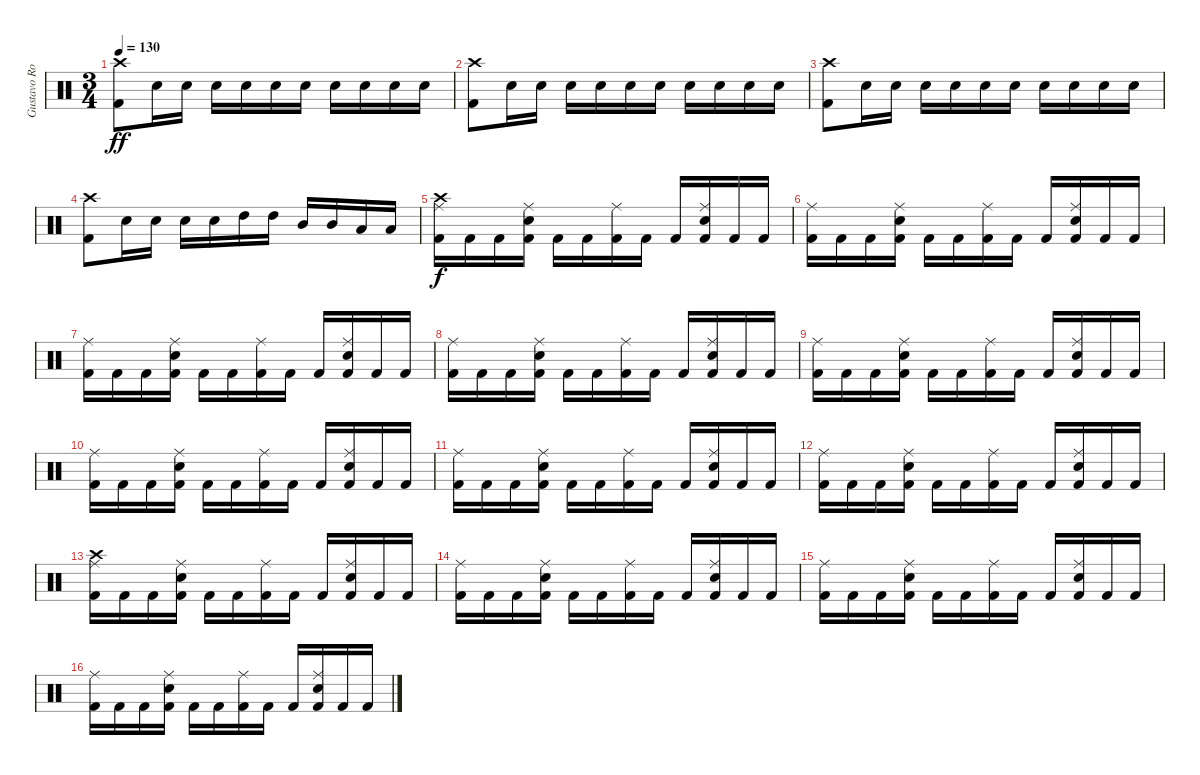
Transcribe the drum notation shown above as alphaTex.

\track ("Gustavo Rowek" "Gustavo Ro") {instrument percussion}
\staff {score}
\articulation defaults
\ts (3 4)
\tempo 130
\clef neutral
\ks c
("Kick (hit) 2" "Crash high (hit)").8{dy ff} "Electric Snare (hit)".16 "Electric Snare (hit)".16 "Electric Snare (hit)".16 "Electric Snare (hit)".16 "Electric Snare (hit)".16 "Electric Snare (hit)".16 "Electric Snare (hit)".16 "Electric Snare (hit)".16 "Electric Snare (hit)".16 "Electric Snare (hit)".16 |
("Kick (hit) 2" "Crash high (hit)").8 "Electric Snare (hit)".16 "Electric Snare (hit)".16 "Electric Snare (hit)".16 "Electric Snare (hit)".16 "Electric Snare (hit)".16 "Electric Snare (hit)".16 "Electric Snare (hit)".16 "Electric Snare (hit)".16 "Electric Snare (hit)".16 "Electric Snare (hit)".16 |
("Kick (hit) 2" "Crash high (hit)").8 "Electric Snare (hit)".16 "Electric Snare (hit)".16 "Electric Snare (hit)".16 "Electric Snare (hit)".16 "Electric Snare (hit)".16 "Electric Snare (hit)".16 "Electric Snare (hit)".16 "Electric Snare (hit)".16 "Electric Snare (hit)".16 "Electric Snare (hit)".16 |
("Kick (hit) 2" "Crash high (hit)").8 "Electric Snare (hit)".16 "Electric Snare (hit)".16 "Electric Snare (hit)".16 "Electric Snare (hit)".16 "High Tom (hit)".16 "High Tom (hit)".16 "Mid Tom (hit)".16 "Mid Tom (hit)".16 "Low Tom (hit)".16 "Low Tom (hit)".16 |
("Ride (middle)" "Crash high (hit)" "Kick (hit) 2").16{dy f} "Kick (hit) 2".16 "Kick (hit) 2".16 ("Ride (middle)" "Snare (hit) 2" "Kick (hit) 2").16 "Kick (hit) 2".16 "Kick (hit) 2".16 ("Ride (middle)" "Kick (hit) 2").16 "Kick (hit) 2".16 "Kick (hit) 2".16 ("Ride (middle)" "Snare (hit) 2" "Kick (hit) 2").16 "Kick (hit) 2".16 "Kick (hit) 2".16 |
("Ride (middle)" "Kick (hit) 2").16 "Kick (hit) 2".16 "Kick (hit) 2".16 ("Ride (middle)" "Snare (hit) 2" "Kick (hit) 2").16 "Kick (hit) 2".16 "Kick (hit) 2".16 ("Ride (middle)" "Kick (hit) 2").16 "Kick (hit) 2".16 "Kick (hit) 2".16 ("Ride (middle)" "Snare (hit) 2" "Kick (hit) 2").16 "Kick (hit) 2".16 "Kick (hit) 2".16 |
("Ride (middle)" "Kick (hit) 2").16 "Kick (hit) 2".16 "Kick (hit) 2".16 ("Ride (middle)" "Snare (hit) 2" "Kick (hit) 2").16 "Kick (hit) 2".16 "Kick (hit) 2".16 ("Ride (middle)" "Kick (hit) 2").16 "Kick (hit) 2".16 "Kick (hit) 2".16 ("Ride (middle)" "Snare (hit) 2" "Kick (hit) 2").16 "Kick (hit) 2".16 "Kick (hit) 2".16 |
("Ride (middle)" "Kick (hit) 2").16 "Kick (hit) 2".16 "Kick (hit) 2".16 ("Ride (middle)" "Snare (hit) 2" "Kick (hit) 2").16 "Kick (hit) 2".16 "Kick (hit) 2".16 ("Ride (middle)" "Kick (hit) 2").16 "Kick (hit) 2".16 "Kick (hit) 2".16 ("Ride (middle)" "Snare (hit) 2" "Kick (hit) 2").16 "Kick (hit) 2".16 "Kick (hit) 2".16 |
("Ride (middle)" "Kick (hit) 2").16 "Kick (hit) 2".16 "Kick (hit) 2".16 ("Ride (middle)" "Snare (hit) 2" "Kick (hit) 2").16 "Kick (hit) 2".16 "Kick (hit) 2".16 ("Ride (middle)" "Kick (hit) 2").16 "Kick (hit) 2".16 "Kick (hit) 2".16 ("Ride (middle)" "Snare (hit) 2" "Kick (hit) 2").16 "Kick (hit) 2".16 "Kick (hit) 2".16 |
("Ride (middle)" "Kick (hit) 2").16 "Kick (hit) 2".16 "Kick (hit) 2".16 ("Ride (middle)" "Snare (hit) 2" "Kick (hit) 2").16 "Kick (hit) 2".16 "Kick (hit) 2".16 ("Ride (middle)" "Kick (hit) 2").16 "Kick (hit) 2".16 "Kick (hit) 2".16 ("Ride (middle)" "Snare (hit) 2" "Kick (hit) 2").16 "Kick (hit) 2".16 "Kick (hit) 2".16 |
("Ride (middle)" "Kick (hit) 2").16 "Kick (hit) 2".16 "Kick (hit) 2".16 ("Ride (middle)" "Snare (hit) 2" "Kick (hit) 2").16 "Kick (hit) 2".16 "Kick (hit) 2".16 ("Ride (middle)" "Kick (hit) 2").16 "Kick (hit) 2".16 "Kick (hit) 2".16 ("Ride (middle)" "Snare (hit) 2" "Kick (hit) 2").16 "Kick (hit) 2".16 "Kick (hit) 2".16 |
("Ride (middle)" "Kick (hit) 2").16 "Kick (hit) 2".16 "Kick (hit) 2".16 ("Ride (middle)" "Snare (hit) 2" "Kick (hit) 2").16 "Kick (hit) 2".16 "Kick (hit) 2".16 ("Ride (middle)" "Kick (hit) 2").16 "Kick (hit) 2".16 "Kick (hit) 2".16 ("Ride (middle)" "Snare (hit) 2" "Kick (hit) 2").16 "Kick (hit) 2".16 "Kick (hit) 2".16 |
("Ride (middle)" "Crash high (hit)" "Kick (hit) 2").16 "Kick (hit) 2".16 "Kick (hit) 2".16 ("Ride (middle)" "Snare (hit) 2" "Kick (hit) 2").16 "Kick (hit) 2".16 "Kick (hit) 2".16 ("Ride (middle)" "Kick (hit) 2").16 "Kick (hit) 2".16 "Kick (hit) 2".16 ("Ride (middle)" "Snare (hit) 2" "Kick (hit) 2").16 "Kick (hit) 2".16 "Kick (hit) 2".16 |
("Ride (middle)" "Kick (hit) 2").16 "Kick (hit) 2".16 "Kick (hit) 2".16 ("Ride (middle)" "Snare (hit) 2" "Kick (hit) 2").16 "Kick (hit) 2".16 "Kick (hit) 2".16 ("Ride (middle)" "Kick (hit) 2").16 "Kick (hit) 2".16 "Kick (hit) 2".16 ("Ride (middle)" "Snare (hit) 2" "Kick (hit) 2").16 "Kick (hit) 2".16 "Kick (hit) 2".16 |
("Ride (middle)" "Kick (hit) 2").16 "Kick (hit) 2".16 "Kick (hit) 2".16 ("Ride (middle)" "Snare (hit) 2" "Kick (hit) 2").16 "Kick (hit) 2".16 "Kick (hit) 2".16 ("Ride (middle)" "Kick (hit) 2").16 "Kick (hit) 2".16 "Kick (hit) 2".16 ("Ride (middle)" "Snare (hit) 2" "Kick (hit) 2").16 "Kick (hit) 2".16 "Kick (hit) 2".16 |
("Ride (middle)" "Kick (hit) 2").16 "Kick (hit) 2".16 "Kick (hit) 2".16 ("Ride (middle)" "Snare (hit) 2" "Kick (hit) 2").16 "Kick (hit) 2".16 "Kick (hit) 2".16 ("Ride (middle)" "Kick (hit) 2").16 "Kick (hit) 2".16 "Kick (hit) 2".16 ("Ride (middle)" "Snare (hit) 2" "Kick (hit) 2").16 "Kick (hit) 2".16 "Kick (hit) 2".16
